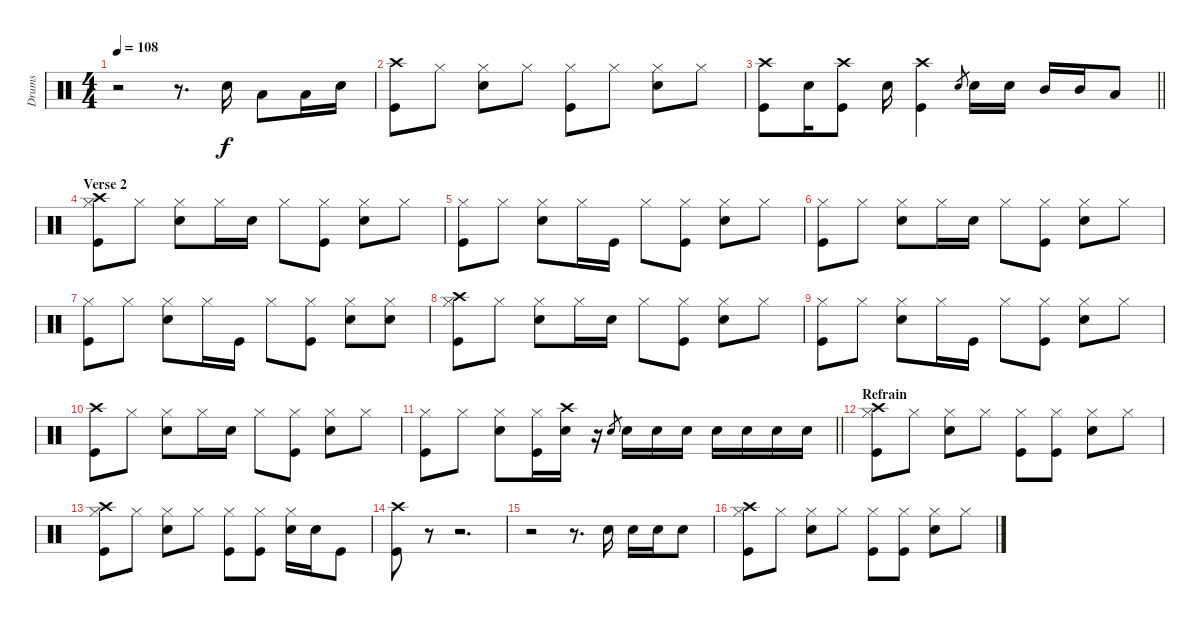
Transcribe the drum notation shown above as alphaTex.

\track ("Drums" "Drums") {instrument percussion}
\staff {score}
\articulation defaults
\ts (4 4)
\tempo 108
\clef neutral
\ks c
r.2{dy f} r.8{d} "Snare (hit) 2".16 "Low Floor Tom (hit)".8 "Low Tom (hit)".16 "Snare (hit) 2".16 |
("Kick (hit)" "Crash high (hit)").8 "Hi-Hat (closed)".8 ("Snare (hit) 2" "Hi-Hat (closed)").8 "Hi-Hat (closed)".8 ("Kick (hit)" "Hi-Hat (closed)").8 "Hi-Hat (closed)".8 ("Snare (hit) 2" "Hi-Hat (closed)").8 "Hi-Hat (closed)".8 |
\barLineRight lightlight
("Kick (hit)" "Crash high (hit)").8 "Snare (hit) 2".16 ("Kick (hit)" "Crash high (hit)").8 "Snare (hit) 2".16 ("Kick (hit)" "Crash high (hit)").4 "Snare (hit) 2".8{gr} "Snare (hit) 2".16 "Snare (hit) 2".16 "Mid Tom (hit)".16 "Mid Tom (hit)".16 "Low Tom (hit)".8 |
\section ("" "Verse 2")
("Hi-Hat (closed)" "Kick (hit)" "Crash high (hit)").8 "Hi-Hat (closed)".8 ("Snare (hit) 2" "Hi-Hat (closed)").8 "Hi-Hat (closed)".16 "Snare (hit) 2".16 "Hi-Hat (closed)".8 ("Kick (hit)" "Hi-Hat (closed)").8 ("Hi-Hat (closed)" "Snare (hit) 2").8 "Hi-Hat (closed)".8 |
("Hi-Hat (closed)" "Kick (hit)").8 "Hi-Hat (closed)".8 ("Snare (hit) 2" "Hi-Hat (closed)").8 "Hi-Hat (closed)".16 "Kick (hit)".16 "Hi-Hat (closed)".8 ("Kick (hit)" "Hi-Hat (closed)").8 ("Hi-Hat (closed)" "Snare (hit) 2").8 "Hi-Hat (closed)".8 |
("Hi-Hat (closed)" "Kick (hit)").8 "Hi-Hat (closed)".8 ("Snare (hit) 2" "Hi-Hat (closed)").8 "Hi-Hat (closed)".16 "Snare (hit) 2".16 "Hi-Hat (closed)".8 ("Kick (hit)" "Hi-Hat (closed)").8 ("Hi-Hat (closed)" "Snare (hit) 2").8 "Hi-Hat (closed)".8 |
("Hi-Hat (closed)" "Kick (hit)").8 "Hi-Hat (closed)".8 ("Snare (hit) 2" "Hi-Hat (closed)").8 "Hi-Hat (closed)".16 "Kick (hit)".16 "Hi-Hat (closed)".8 ("Kick (hit)" "Hi-Hat (closed)").8 ("Hi-Hat (closed)" "Snare (hit) 2").8 ("Hi-Hat (closed)" "Snare (hit) 2").8 |
("Hi-Hat (closed)" "Kick (hit)" "Crash high (hit)").8 "Hi-Hat (closed)".8 ("Snare (hit) 2" "Hi-Hat (closed)").8 "Hi-Hat (closed)".16 "Snare (hit) 2".16 "Hi-Hat (closed)".8 ("Kick (hit)" "Hi-Hat (closed)").8 ("Hi-Hat (closed)" "Snare (hit) 2").8 "Hi-Hat (closed)".8 |
("Hi-Hat (closed)" "Kick (hit)").8 "Hi-Hat (closed)".8 ("Snare (hit) 2" "Hi-Hat (closed)").8 "Hi-Hat (closed)".16 "Kick (hit)".16 "Hi-Hat (closed)".8 ("Kick (hit)" "Hi-Hat (closed)").8 ("Hi-Hat (closed)" "Snare (hit) 2").8 "Hi-Hat (closed)".8 |
("Crash high (hit)" "Kick (hit)").8 "Hi-Hat (closed)".8 ("Snare (hit) 2" "Hi-Hat (closed)").8 "Hi-Hat (closed)".16 "Snare (hit) 2".16 "Hi-Hat (closed)".8 ("Kick (hit)" "Hi-Hat (closed)").8 ("Hi-Hat (closed)" "Snare (hit) 2").8 "Hi-Hat (closed)".8 |
\barLineRight lightlight
("Hi-Hat (closed)" "Kick (hit)").8 "Hi-Hat (closed)".8 ("Snare (hit) 2" "Hi-Hat (closed)").8 ("Hi-Hat (closed)" "Kick (hit)").16 ("Snare (hit) 2" "Crash high (hit)").16 r.16 "Snare (hit) 2".8{gr} "Snare (hit) 2".16 "Snare (hit) 2".16 "Snare (hit) 2".16 "Snare (hit) 2".16 "Snare (hit) 2".16 "Snare (hit) 2".16 "Snare (hit) 2".16 |
\section ("" "Refrain")
("Kick (hit)" "Hi-Hat (closed)" "Crash high (hit)").8 "Hi-Hat (closed)".8 ("Snare (hit) 2" "Hi-Hat (closed)").8 "Hi-Hat (closed)".8 ("Kick (hit)" "Hi-Hat (closed)").8 ("Hi-Hat (closed)" "Kick (hit)").8 ("Hi-Hat (closed)" "Snare (hit) 2").8 "Hi-Hat (closed)".8 |
("Kick (hit)" "Hi-Hat (closed)" "Crash high (hit)").8 "Hi-Hat (closed)".8 ("Snare (hit) 2" "Hi-Hat (closed)").8 "Hi-Hat (closed)".8 ("Kick (hit)" "Hi-Hat (closed)").8 ("Hi-Hat (closed)" "Kick (hit)").8 ("Hi-Hat (closed)" "Snare (hit) 2").16 "Snare (hit) 2".16 "Kick (hit)".8 |
("Kick (hit)" "Crash high (hit)").8 r.8 r.2{d} |
r.2 r.8{d} "Snare (hit) 2".16 "Snare (hit) 2".16 "Snare (hit) 2".16 "Snare (hit) 2".8 |
("Kick (hit)" "Hi-Hat (closed)" "Crash high (hit)").8 "Hi-Hat (closed)".8 ("Snare (hit) 2" "Hi-Hat (closed)").8 "Hi-Hat (closed)".8 ("Kick (hit)" "Hi-Hat (closed)").8 ("Hi-Hat (closed)" "Kick (hit)").8 ("Snare (hit) 2" "Hi-Hat (closed)").8 "Hi-Hat (closed)".8
